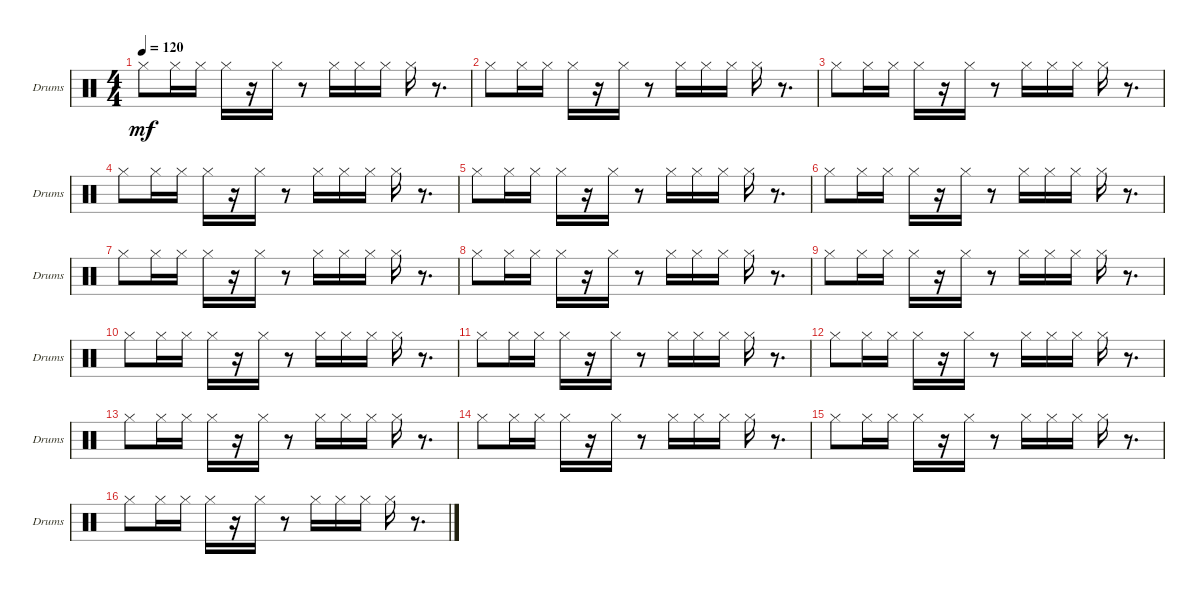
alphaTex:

\bracketExtendMode groupsimilarinstruments
\singleTrackTrackNamePolicy allsystems
\multiTrackTrackNamePolicy allsystems
\firstSystemTrackNameOrientation horizontal
\otherSystemsTrackNameOrientation horizontal
\track ("Drum hihat" "Drums") {instrument percussion}
\staff {score}
\articulation defaults
\ts (4 4)
\tempo 120
\clef neutral
\scale
1.05296
\ks c "Hi-Hat (closed)".8{dy mf} "Hi-Hat (closed)".16 "Hi-Hat (closed)".16 "Hi-Hat (closed)".16
r.16 "Hi-Hat (closed)".16 r.8 "Hi-Hat (closed)".16 "Hi-Hat (closed)".16 "Hi-Hat (closed)".16 "Hi-Hat (closed)".16 r.8{d} |
\scale
0.973518 "Hi-Hat (closed)".8 "Hi-Hat (closed)".16 "Hi-Hat (closed)".16 "Hi-Hat (closed)".16 r.16 "Hi-Hat (closed)".16 r.8 "Hi-Hat (closed)".16 "Hi-Hat (closed)".16 "Hi-Hat (closed)".16 "Hi-Hat (closed)".16 r.8{d} |
\scale
0.973518 "Hi-Hat (closed)".8 "Hi-Hat (closed)".16 "Hi-Hat (closed)".16 "Hi-Hat (closed)".16 r.16 "Hi-Hat (closed)".16 r.8 "Hi-Hat (closed)".16 "Hi-Hat (closed)".16 "Hi-Hat (closed)".16 "Hi-Hat (closed)".16 r.8{d} |
\scale
1.05296 "Hi-Hat (closed)".8 "Hi-Hat (closed)".16 "Hi-Hat (closed)".16 "Hi-Hat (closed)".16 r.16 "Hi-Hat (closed)".16 r.8 "Hi-Hat (closed)".16 "Hi-Hat (closed)".16 "Hi-Hat (closed)".16 "Hi-Hat (closed)".16 r.8{d} |
\scale
0.973518 "Hi-Hat (closed)".8 "Hi-Hat (closed)".16 "Hi-Hat (closed)".16 "Hi-Hat (closed)".16 r.16 "Hi-Hat (closed)".16 r.8 "Hi-Hat (closed)".16 "Hi-Hat (closed)".16 "Hi-Hat (closed)".16 "Hi-Hat (closed)".16 r.8{d} |
\scale
0.973518 "Hi-Hat (closed)".8 "Hi-Hat (closed)".16 "Hi-Hat (closed)".16 "Hi-Hat (closed)".16 r.16 "Hi-Hat (closed)".16 r.8 "Hi-Hat (closed)".16 "Hi-Hat (closed)".16 "Hi-Hat (closed)".16 "Hi-Hat (closed)".16 r.8{d} |
\scale
1.05296 "Hi-Hat (closed)".8 "Hi-Hat (closed)".16 "Hi-Hat (closed)".16 "Hi-Hat (closed)".16 r.16 "Hi-Hat (closed)".16 r.8 "Hi-Hat (closed)".16 "Hi-Hat (closed)".16 "Hi-Hat (closed)".16 "Hi-Hat (closed)".16 r.8{d} |
\scale
0.973518 "Hi-Hat (closed)".8 "Hi-Hat (closed)".16 "Hi-Hat (closed)".16 "Hi-Hat (closed)".16 r.16 "Hi-Hat (closed)".16 r.8 "Hi-Hat (closed)".16 "Hi-Hat (closed)".16 "Hi-Hat (closed)".16 "Hi-Hat (closed)".16 r.8{d} |
\scale
0.973518 "Hi-Hat (closed)".8 "Hi-Hat (closed)".16 "Hi-Hat (closed)".16 "Hi-Hat (closed)".16 r.16 "Hi-Hat (closed)".16 r.8 "Hi-Hat (closed)".16 "Hi-Hat (closed)".16 "Hi-Hat (closed)".16 "Hi-Hat (closed)".16 r.8{d} |
\scale
1.05296 "Hi-Hat (closed)".8 "Hi-Hat (closed)".16 "Hi-Hat (closed)".16 "Hi-Hat (closed)".16 r.16 "Hi-Hat (closed)".16 r.8 "Hi-Hat (closed)".16 "Hi-Hat (closed)".16 "Hi-Hat (closed)".16 "Hi-Hat (closed)".16 r.8{d} |
\scale
0.973518 "Hi-Hat (closed)".8 "Hi-Hat (closed)".16 "Hi-Hat (closed)".16 "Hi-Hat (closed)".16 r.16 "Hi-Hat (closed)".16 r.8 "Hi-Hat (closed)".16 "Hi-Hat (closed)".16 "Hi-Hat (closed)".16 "Hi-Hat (closed)".16 r.8{d} |
\scale
0.973518 "Hi-Hat (closed)".8 "Hi-Hat (closed)".16 "Hi-Hat (closed)".16 "Hi-Hat (closed)".16 r.16 "Hi-Hat (closed)".16 r.8 "Hi-Hat (closed)".16 "Hi-Hat (closed)".16 "Hi-Hat (closed)".16 "Hi-Hat (closed)".16 r.8{d} |
\scale
1.05296 "Hi-Hat (closed)".8 "Hi-Hat (closed)".16 "Hi-Hat (closed)".16 "Hi-Hat (closed)".16 r.16 "Hi-Hat (closed)".16 r.8 "Hi-Hat (closed)".16 "Hi-Hat (closed)".16 "Hi-Hat (closed)".16 "Hi-Hat (closed)".16 r.8{d} |
\scale
0.973518 "Hi-Hat (closed)".8 "Hi-Hat (closed)".16 "Hi-Hat (closed)".16 "Hi-Hat (closed)".16 r.16 "Hi-Hat (closed)".16 r.8 "Hi-Hat (closed)".16 "Hi-Hat (closed)".16 "Hi-Hat (closed)".16 "Hi-Hat (closed)".16 r.8{d} |
\scale
0.973518 "Hi-Hat (closed)".8 "Hi-Hat (closed)".16 "Hi-Hat (closed)".16 "Hi-Hat (closed)".16 r.16 "Hi-Hat (closed)".16 r.8 "Hi-Hat (closed)".16 "Hi-Hat (closed)".16 "Hi-Hat (closed)".16 "Hi-Hat (closed)".16 r.8{d} |
\scale
1.05296 "Hi-Hat (closed)".8 "Hi-Hat (closed)".16 "Hi-Hat (closed)".16 "Hi-Hat (closed)".16 r.16 "Hi-Hat (closed)".16 r.8 "Hi-Hat (closed)".16 "Hi-Hat (closed)".16 "Hi-Hat (closed)".16 "Hi-Hat (closed)".16 r.8{d}
